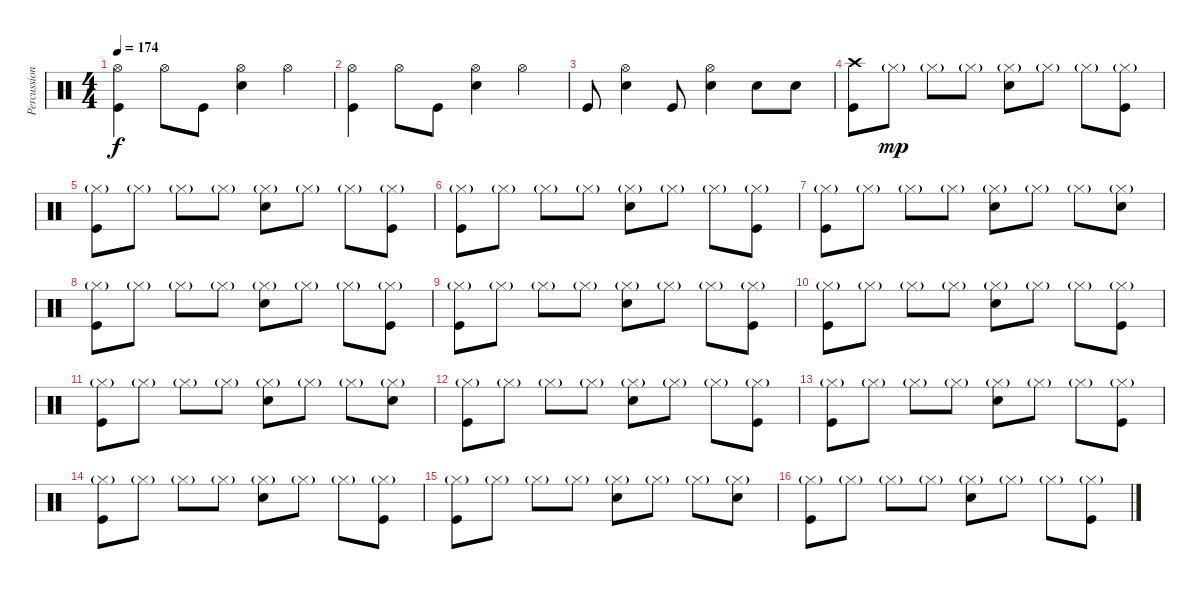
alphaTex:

\track ("Percussion" "Percussion") {instrument percussion}
\staff {score}
\articulation defaults
\ts (4 4)
\tempo 174
\clef neutral
\ks c
("Hi-Hat (open)" "Kick (hit)").4{dy f} "Hi-Hat (open)".8 "Kick (hit)".8 ("Hi-Hat (open)" "Electric Snare (hit)").4 "Hi-Hat (open)".4 |
("Hi-Hat (open)" "Kick (hit)").4 "Hi-Hat (open)".8 "Kick (hit)".8 ("Hi-Hat (open)" "Electric Snare (hit)").4 "Hi-Hat (open)".4 |
"Kick (hit)".8 ("Hi-Hat (open)" "Electric Snare (hit)").4 "Kick (hit)".8 ("Hi-Hat (open)" "Electric Snare (hit)").4 "Electric Snare (hit)".8 "Electric Snare (hit)".8 |
("Crash high (hit)" "Kick (hit)").8 "Hi-Hat (closed)"{g}.8{dy mp} "Hi-Hat (closed)"{g}.8 "Hi-Hat (closed)"{g}.8 ("Hi-Hat (closed)"{g} "Electric Snare (hit)").8 "Hi-Hat (closed)"{g}.8 "Hi-Hat (closed)"{g}.8 ("Hi-Hat (closed)"{g} "Kick (hit)").8 |
("Hi-Hat (closed)"{g} "Kick (hit)").8 "Hi-Hat (closed)"{g}.8 "Hi-Hat (closed)"{g}.8 "Hi-Hat (closed)"{g}.8 ("Hi-Hat (closed)"{g} "Electric Snare (hit)").8 "Hi-Hat (closed)"{g}.8 "Hi-Hat (closed)"{g}.8 ("Hi-Hat (closed)"{g} "Kick (hit)").8 |
("Hi-Hat (closed)"{g} "Kick (hit)").8 "Hi-Hat (closed)"{g}.8 "Hi-Hat (closed)"{g}.8 "Hi-Hat (closed)"{g}.8 ("Hi-Hat (closed)"{g} "Electric Snare (hit)").8 "Hi-Hat (closed)"{g}.8 "Hi-Hat (closed)"{g}.8 ("Hi-Hat (closed)"{g} "Kick (hit)").8 |
("Hi-Hat (closed)"{g} "Kick (hit)").8 "Hi-Hat (closed)"{g}.8 "Hi-Hat (closed)"{g}.8 "Hi-Hat (closed)"{g}.8 ("Hi-Hat (closed)"{g} "Electric Snare (hit)").8 "Hi-Hat (closed)"{g}.8 "Hi-Hat (closed)"{g}.8 ("Hi-Hat (closed)"{g} "Electric Snare (hit)").8 |
("Hi-Hat (closed)"{g} "Kick (hit)").8 "Hi-Hat (closed)"{g}.8 "Hi-Hat (closed)"{g}.8 "Hi-Hat (closed)"{g}.8 ("Hi-Hat (closed)"{g} "Electric Snare (hit)").8 "Hi-Hat (closed)"{g}.8 "Hi-Hat (closed)"{g}.8 ("Hi-Hat (closed)"{g} "Kick (hit)").8 |
("Hi-Hat (closed)"{g} "Kick (hit)").8 "Hi-Hat (closed)"{g}.8 "Hi-Hat (closed)"{g}.8 "Hi-Hat (closed)"{g}.8 ("Hi-Hat (closed)"{g} "Electric Snare (hit)").8 "Hi-Hat (closed)"{g}.8 "Hi-Hat (closed)"{g}.8 ("Hi-Hat (closed)"{g} "Kick (hit)").8 |
("Hi-Hat (closed)"{g} "Kick (hit)").8 "Hi-Hat (closed)"{g}.8 "Hi-Hat (closed)"{g}.8 "Hi-Hat (closed)"{g}.8 ("Hi-Hat (closed)"{g} "Electric Snare (hit)").8 "Hi-Hat (closed)"{g}.8 "Hi-Hat (closed)"{g}.8 ("Hi-Hat (closed)"{g} "Kick (hit)").8 |
("Hi-Hat (closed)"{g} "Kick (hit)").8 "Hi-Hat (closed)"{g}.8 "Hi-Hat (closed)"{g}.8 "Hi-Hat (closed)"{g}.8 ("Hi-Hat (closed)"{g} "Electric Snare (hit)").8 "Hi-Hat (closed)"{g}.8 "Hi-Hat (closed)"{g}.8 ("Hi-Hat (closed)"{g} "Electric Snare (hit)").8 |
("Hi-Hat (closed)"{g} "Kick (hit)").8 "Hi-Hat (closed)"{g}.8 "Hi-Hat (closed)"{g}.8 "Hi-Hat (closed)"{g}.8 ("Hi-Hat (closed)"{g} "Electric Snare (hit)").8 "Hi-Hat (closed)"{g}.8 "Hi-Hat (closed)"{g}.8 ("Hi-Hat (closed)"{g} "Kick (hit)").8 |
("Hi-Hat (closed)"{g} "Kick (hit)").8 "Hi-Hat (closed)"{g}.8 "Hi-Hat (closed)"{g}.8 "Hi-Hat (closed)"{g}.8 ("Hi-Hat (closed)"{g} "Electric Snare (hit)").8 "Hi-Hat (closed)"{g}.8 "Hi-Hat (closed)"{g}.8 ("Hi-Hat (closed)"{g} "Kick (hit)").8 |
("Hi-Hat (closed)"{g} "Kick (hit)").8 "Hi-Hat (closed)"{g}.8 "Hi-Hat (closed)"{g}.8 "Hi-Hat (closed)"{g}.8 ("Hi-Hat (closed)"{g} "Electric Snare (hit)").8 "Hi-Hat (closed)"{g}.8 "Hi-Hat (closed)"{g}.8 ("Hi-Hat (closed)"{g} "Kick (hit)").8 |
("Hi-Hat (closed)"{g} "Kick (hit)").8 "Hi-Hat (closed)"{g}.8 "Hi-Hat (closed)"{g}.8 "Hi-Hat (closed)"{g}.8 ("Hi-Hat (closed)"{g} "Electric Snare (hit)").8 "Hi-Hat (closed)"{g}.8 "Hi-Hat (closed)"{g}.8 ("Hi-Hat (closed)"{g} "Electric Snare (hit)").8 |
("Hi-Hat (closed)"{g} "Kick (hit)").8 "Hi-Hat (closed)"{g}.8 "Hi-Hat (closed)"{g}.8 "Hi-Hat (closed)"{g}.8 ("Hi-Hat (closed)"{g} "Electric Snare (hit)").8 "Hi-Hat (closed)"{g}.8 "Hi-Hat (closed)"{g}.8 ("Hi-Hat (closed)"{g} "Kick (hit)").8
